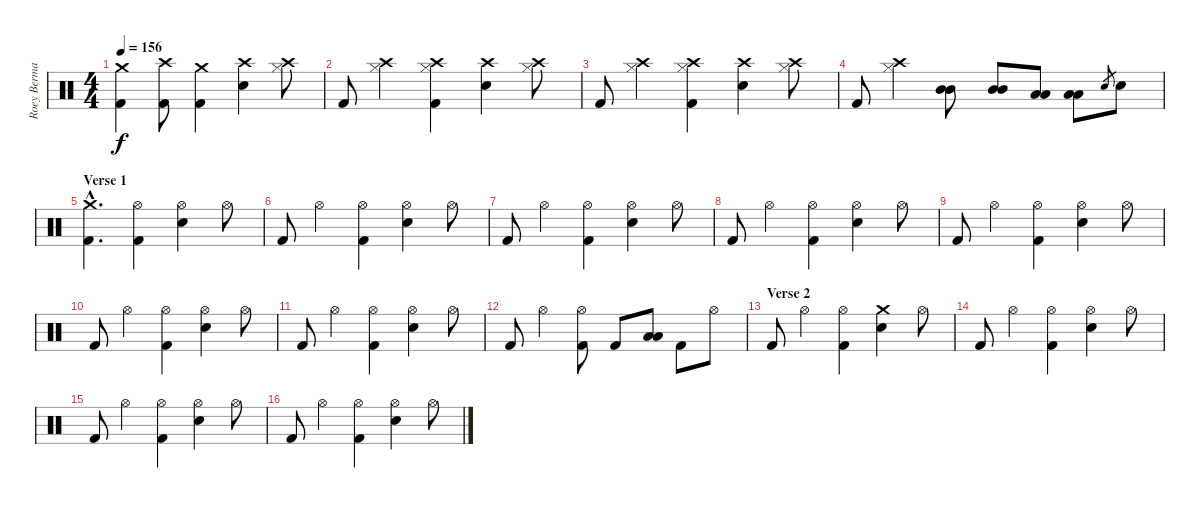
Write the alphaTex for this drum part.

\track ("Roey Berman" "Roey Berma") {instrument percussion}
\staff {score}
\articulation defaults
\ts (4 4)
\tempo 156
\clef neutral
\ks c
("Crash medium (hit)" "Kick (hit) 2").4{dy f} ("Crash high (hit)" "Kick (hit) 2").8 ("Crash medium (hit)" "Kick (hit) 2").4 ("Crash high (hit)" "Electric Snare (hit)").4 ("Crash high (hit)" "Hi-Hat (closed)").8 |
"Kick (hit) 2".8 ("Crash high (hit)" "Hi-Hat (closed)").4 ("Crash high (hit)" "Hi-Hat (closed)" "Kick (hit) 2").4 ("Crash high (hit)" "Electric Snare (hit)").4 ("Crash high (hit)" "Hi-Hat (closed)").8 |
"Kick (hit) 2".8 ("Crash high (hit)" "Hi-Hat (closed)").4 ("Crash high (hit)" "Hi-Hat (closed)" "Kick (hit) 2").4 ("Crash high (hit)" "Electric Snare (hit)").4 ("Crash high (hit)" "Hi-Hat (closed)").8 |
"Kick (hit) 2".8 ("Crash high (hit)" "Hi-Hat (closed)").4 ("Mid Tom (hit)" "Mid Tom (hit)").8 ("Mid Tom (hit)" "Mid Tom (hit)").8 ("Low Tom (hit)" "Low Tom (hit)").8 ("Low Tom (hit)" "Low Tom (hit)").8 "Electric Snare (hit)".8{gr} "Electric Snare (hit)".8 |
\section ("" "Verse 1")
("Crash medium (hit)"{hac} "Kick (hit) 2"{hac}).4{d} ("Hi-Hat (open)" "Kick (hit) 2").4 ("Hi-Hat (open)" "Electric Snare (hit)").4 "Hi-Hat (open)".8 |
"Kick (hit) 2".8 "Hi-Hat (open)".4 ("Hi-Hat (open)" "Kick (hit) 2").4 ("Hi-Hat (open)" "Electric Snare (hit)").4 "Hi-Hat (open)".8 |
"Kick (hit) 2".8 "Hi-Hat (open)".4 ("Hi-Hat (open)" "Kick (hit) 2").4 ("Hi-Hat (open)" "Electric Snare (hit)").4 "Hi-Hat (open)".8 |
"Kick (hit) 2".8 "Hi-Hat (open)".4 ("Hi-Hat (open)" "Kick (hit) 2").4 ("Hi-Hat (open)" "Electric Snare (hit)").4 "Hi-Hat (open)".8 |
"Kick (hit) 2".8 "Hi-Hat (open)".4 ("Hi-Hat (open)" "Kick (hit) 2").4 ("Hi-Hat (open)" "Electric Snare (hit)").4 "Hi-Hat (open)".8 |
"Kick (hit) 2".8 "Hi-Hat (open)".4 ("Hi-Hat (open)" "Kick (hit) 2").4 ("Hi-Hat (open)" "Electric Snare (hit)").4 "Hi-Hat (open)".8 |
"Kick (hit) 2".8 "Hi-Hat (open)".4 ("Hi-Hat (open)" "Kick (hit) 2").4 ("Hi-Hat (open)" "Electric Snare (hit)").4 "Hi-Hat (open)".8 |
"Kick (hit) 2".8 "Hi-Hat (open)".4 ("Hi-Hat (open)" "Kick (hit) 2").8 "Kick (hit) 2".8 ("Low Tom (hit)" "Low Tom (hit)").8 "Kick (hit) 2".8 "Hi-Hat (open)".8 |
\section ("" "Verse 2")
"Kick (hit) 2".8 "Hi-Hat (open)".4 ("Hi-Hat (open)" "Kick (hit) 2").4 ("Crash medium (hit)" "Electric Snare (hit)").4 "Hi-Hat (open)".8 |
"Kick (hit) 2".8 "Hi-Hat (open)".4 ("Hi-Hat (open)" "Kick (hit) 2").4 ("Hi-Hat (open)" "Electric Snare (hit)").4 "Hi-Hat (open)".8 |
"Kick (hit) 2".8 "Hi-Hat (open)".4 ("Hi-Hat (open)" "Kick (hit) 2").4 ("Hi-Hat (open)" "Electric Snare (hit)").4 "Hi-Hat (open)".8 |
"Kick (hit) 2".8 "Hi-Hat (open)".4 ("Hi-Hat (open)" "Kick (hit) 2").4 ("Hi-Hat (open)" "Electric Snare (hit)").4 "Hi-Hat (open)".8
